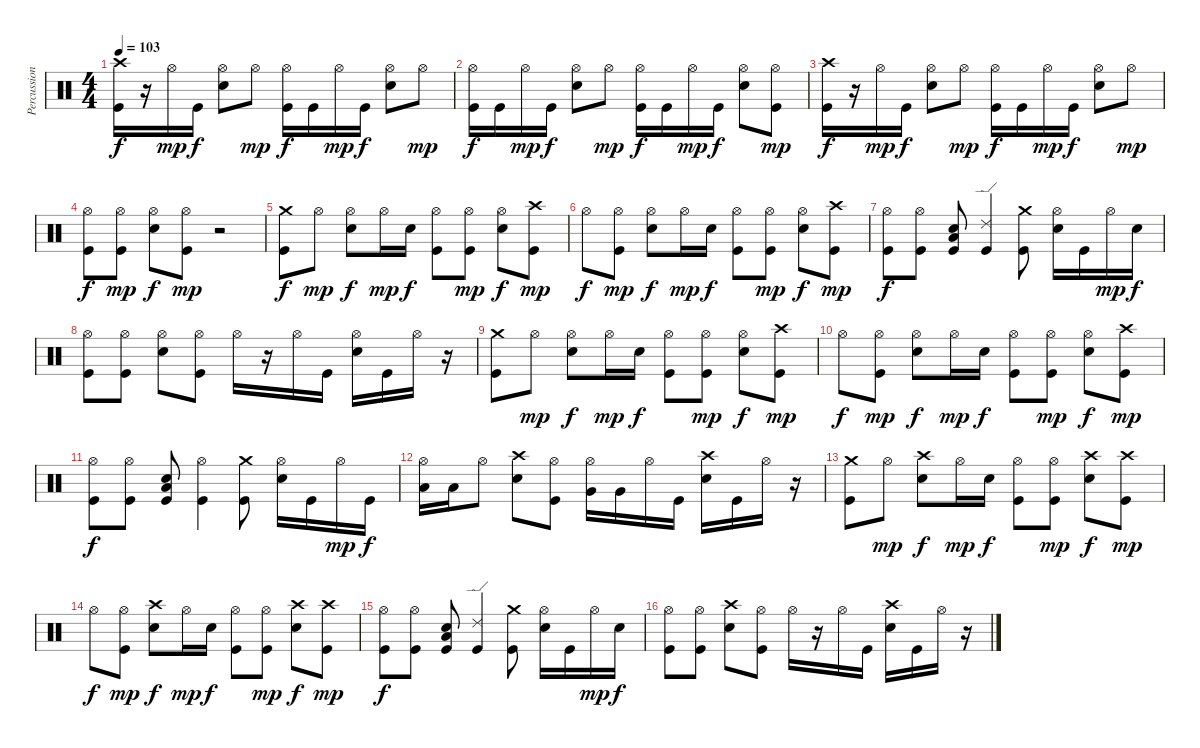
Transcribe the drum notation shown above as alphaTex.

\track ("Percussion" "Percussion") {instrument percussion}
\staff {score}
\articulation defaults
\ts (4 4)
\tempo 103
\clef neutral
\ks c
("Crash high (hit)" "Kick (hit)").16{dy f} r.16 "Hi-Hat (open)".16{dy mp} "Kick (hit)".16{dy f} ("Hi-Hat (open)" "Electric Snare (hit)").8 "Hi-Hat (open)".8{dy mp} ("Hi-Hat (open)" "Kick (hit)").16{dy f} "Kick (hit)".16 "Hi-Hat (open)".16{dy mp} "Kick (hit)".16{dy f} ("Hi-Hat (open)" "Electric Snare (hit)").8 "Hi-Hat (open)".8{dy mp} |
("Hi-Hat (open)" "Kick (hit)").16{dy f} "Kick (hit)".16 "Hi-Hat (open)".16{dy mp} "Kick (hit)".16{dy f} ("Hi-Hat (open)" "Electric Snare (hit)").8 "Hi-Hat (open)".8{dy mp} ("Hi-Hat (open)" "Kick (hit)").16{dy f} "Kick (hit)".16 "Hi-Hat (open)".16{dy mp} "Kick (hit)".16{dy f} ("Hi-Hat (open)" "Electric Snare (hit)").8 ("Hi-Hat (open)" "Kick (hit)").8{dy mp} |
("Crash high (hit)" "Kick (hit)").16{dy f} r.16 "Hi-Hat (open)".16{dy mp} "Kick (hit)".16{dy f} ("Hi-Hat (open)" "Electric Snare (hit)").8 "Hi-Hat (open)".8{dy mp} ("Hi-Hat (open)" "Kick (hit)").16{dy f} "Kick (hit)".16 "Hi-Hat (open)".16{dy mp} "Kick (hit)".16{dy f} ("Hi-Hat (open)" "Electric Snare (hit)").8 "Hi-Hat (open)".8{dy mp} |
("Hi-Hat (open)" "Kick (hit)").8{dy f} ("Hi-Hat (open)" "Kick (hit)").8{dy mp} ("Hi-Hat (open)" "Electric Snare (hit)").8{dy f} ("Hi-Hat (open)" "Kick (hit)").8{dy mp} r.2 |
("Crash medium (hit)" "Kick (hit)").8{dy f} "Hi-Hat (open)".8{dy mp} ("Hi-Hat (open)" "Electric Snare (hit)").8{dy f} "Hi-Hat (open)".16{dy mp} "Electric Snare (hit)".16{dy f} ("Hi-Hat (open)" "Kick (hit)").8 ("Hi-Hat (open)" "Kick (hit)").8{dy mp} ("Hi-Hat (open)" "Electric Snare (hit)").8{dy f} ("Crash high (hit)" "Kick (hit)").8{dy mp} |
"Hi-Hat (open)".8{dy f} ("Hi-Hat (open)" "Kick (hit)").8{dy mp} ("Hi-Hat (open)" "Electric Snare (hit)").8{dy f} "Hi-Hat (open)".16{dy mp} "Electric Snare (hit)".16{dy f} ("Hi-Hat (open)" "Kick (hit)").8 ("Hi-Hat (open)" "Kick (hit)").8{dy mp} ("Hi-Hat (open)" "Electric Snare (hit)").8{dy f} ("Crash high (hit)" "Kick (hit)").8{dy mp} |
("Hi-Hat (open)" "Kick (hit)").8{dy f} ("Hi-Hat (open)" "Kick (hit)").8 ("Electric Snare (hit)" "Low Floor Tom (hit)" "Kick (hit)").8 ("Ride (edge) 2" "Kick (hit)").4 ("Crash medium (hit)" "Kick (hit)").8 ("Hi-Hat (open)" "Electric Snare (hit)").16 "Kick (hit)".16 "Hi-Hat (open)".16{dy mp} "Electric Snare (hit)".16{dy f} |
("Hi-Hat (open)" "Kick (hit)").8 ("Hi-Hat (open)" "Kick (hit)").8 ("Hi-Hat (open)" "Electric Snare (hit)").8 ("Hi-Hat (open)" "Kick (hit)").8 "Hi-Hat (open)".16 r.16 "Hi-Hat (open)".16 "Kick (hit)".16 ("Hi-Hat (open)" "Electric Snare (hit)").16 "Kick (hit)".16 "Hi-Hat (open)".16 r.16 |
("Crash medium (hit)" "Kick (hit)").8 "Hi-Hat (open)".8{dy mp} ("Hi-Hat (open)" "Electric Snare (hit)").8{dy f} "Hi-Hat (open)".16{dy mp} "Electric Snare (hit)".16{dy f} ("Hi-Hat (open)" "Kick (hit)").8 ("Hi-Hat (open)" "Kick (hit)").8{dy mp} ("Hi-Hat (open)" "Electric Snare (hit)").8{dy f} ("Crash high (hit)" "Kick (hit)").8{dy mp} |
"Hi-Hat (open)".8{dy f} ("Hi-Hat (open)" "Kick (hit)").8{dy mp} ("Hi-Hat (open)" "Electric Snare (hit)").8{dy f} "Hi-Hat (open)".16{dy mp} "Electric Snare (hit)".16{dy f} ("Hi-Hat (open)" "Kick (hit)").8 ("Hi-Hat (open)" "Kick (hit)").8{dy mp} ("Hi-Hat (open)" "Electric Snare (hit)").8{dy f} ("Crash high (hit)" "Kick (hit)").8{dy mp} |
("Hi-Hat (open)" "Kick (hit)").8{dy f} ("Hi-Hat (open)" "Kick (hit)").8 ("Electric Snare (hit)" "Low Floor Tom (hit)" "Kick (hit)").8 ("Hi-Hat (open)" "Kick (hit)").4 ("Crash medium (hit)" "Kick (hit)").8 ("Hi-Hat (open)" "Electric Snare (hit)").16 "Kick (hit)".16 "Hi-Hat (open)".16{dy mp} "Kick (hit)".16{dy f} |
("Hi-Hat (open)" "Low Tom (hit)").16 "Low Tom (hit)".16 "Hi-Hat (open)".8 ("Crash high (hit)" "Electric Snare (hit)").8 ("Hi-Hat (open)" "Kick (hit)").8 ("Hi-Hat (open)" "Very Low Tom (hit)").16 "Very Low Tom (hit)".16 "Hi-Hat (open)".16 "Kick (hit)".16 ("Crash high (hit)" "Electric Snare (hit)").16 "Kick (hit)".16 "Hi-Hat (open)".16 r.16 |
("Crash medium (hit)" "Kick (hit)").8 "Hi-Hat (open)".8{dy mp} ("Crash high (hit)" "Electric Snare (hit)").8{dy f} "Hi-Hat (open)".16{dy mp} "Electric Snare (hit)".16{dy f} ("Hi-Hat (open)" "Kick (hit)").8 ("Hi-Hat (open)" "Kick (hit)").8{dy mp} ("Crash high (hit)" "Electric Snare (hit)").8{dy f} ("Crash high (hit)" "Kick (hit)").8{dy mp} |
"Hi-Hat (open)".8{dy f} ("Hi-Hat (open)" "Kick (hit)").8{dy mp} ("Crash high (hit)" "Electric Snare (hit)").8{dy f} "Hi-Hat (open)".16{dy mp} "Electric Snare (hit)".16{dy f} ("Hi-Hat (open)" "Kick (hit)").8 ("Hi-Hat (open)" "Kick (hit)").8{dy mp} ("Crash high (hit)" "Electric Snare (hit)").8{dy f} ("Crash high (hit)" "Kick (hit)").8{dy mp} |
("Hi-Hat (open)" "Kick (hit)").8{dy f} ("Hi-Hat (open)" "Kick (hit)").8 ("Electric Snare (hit)" "Low Floor Tom (hit)" "Kick (hit)").8 ("Ride (edge) 2" "Kick (hit)").4 ("Crash medium (hit)" "Kick (hit)").8 ("Hi-Hat (open)" "Electric Snare (hit)").16 "Kick (hit)".16 "Hi-Hat (open)".16{dy mp} "Electric Snare (hit)".16{dy f} |
("Hi-Hat (open)" "Kick (hit)").8 ("Hi-Hat (open)" "Kick (hit)").8 ("Crash high (hit)" "Electric Snare (hit)").8 ("Hi-Hat (open)" "Kick (hit)").8 "Hi-Hat (open)".16 r.16 "Hi-Hat (open)".16 "Kick (hit)".16 ("Crash high (hit)" "Electric Snare (hit)").16 "Kick (hit)".16 "Hi-Hat (open)".16 r.16
